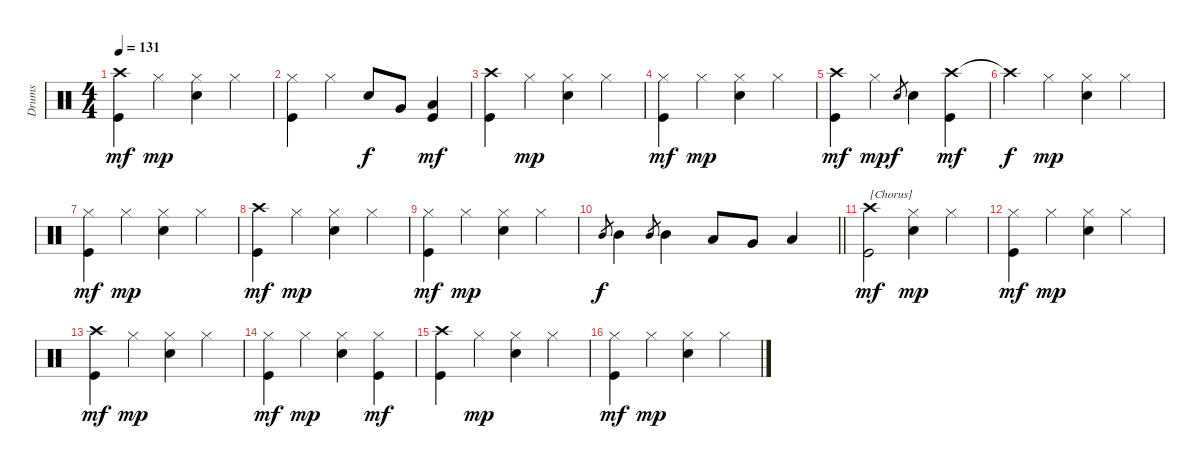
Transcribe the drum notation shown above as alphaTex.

\track ("Drums" "Drums") {instrument percussion}
\staff {score}
\articulation defaults
\ts (4 4)
\tempo 131
\clef neutral
\ks c
("Crash high (hit)" "Kick (hit)").4{dy mf} "Hi-Hat (closed)".4{dy mp} ("Hi-Hat (closed)" "Snare (hit) 2").4 "Hi-Hat (closed)".4 |
("Hi-Hat (closed)" "Kick (hit)").4 "Hi-Hat (closed)".4 "Snare (hit) 2".8{dy f} "Very Low Tom (hit)".8 ("Low Floor Tom (hit)" "Kick (hit)").4{dy mf} |
("Crash high (hit)" "Kick (hit)").4 "Hi-Hat (closed)".4{dy mp} ("Hi-Hat (closed)" "Snare (hit) 2").4 "Hi-Hat (closed)".4 |
("Hi-Hat (closed)" "Kick (hit)").4{dy mf} "Hi-Hat (closed)".4{dy mp} ("Hi-Hat (closed)" "Snare (hit) 2").4 "Hi-Hat (closed)".4 |
("Crash high (hit)" "Kick (hit)").4{dy mf} "Hi-Hat (closed)".4{dy mp} "Snare (hit) 2".8{gr dy f} "Snare (hit) 2".4 ("Crash high (hit)" "Kick (hit)").4{dy mf} |
"Crash high (hit)"{t}.4{dy f} "Hi-Hat (closed)".4{dy mp} ("Hi-Hat (closed)" "Snare (hit) 2").4 "Hi-Hat (closed)".4 |
("Hi-Hat (closed)" "Kick (hit)").4{dy mf} "Hi-Hat (closed)".4{dy mp} ("Hi-Hat (closed)" "Snare (hit) 2").4 "Hi-Hat (closed)".4 |
("Crash high (hit)" "Kick (hit)").4{dy mf} "Hi-Hat (closed)".4{dy mp} ("Hi-Hat (closed)" "Snare (hit) 2").4 "Hi-Hat (closed)".4 |
("Hi-Hat (closed)" "Kick (hit)").4{dy mf} "Hi-Hat (closed)".4{dy mp} ("Hi-Hat (closed)" "Snare (hit) 2").4 "Hi-Hat (closed)".4 |
\barLineRight lightlight "Mid Tom (hit)".8{gr dy f} "Mid Tom (hit)".4 "Mid Tom (hit)".8{gr} "Mid Tom (hit)".4 "Low Tom (hit)".8 "Very Low Tom (hit)".8 "Low Tom (hit)".4
|
("Crash high (hit)" "Kick (hit)").2{txt "[Chorus]" dy mf} ("Hi-Hat (closed)" "Snare (hit) 2").4{dy mp} "Hi-Hat (closed)".4 |
("Hi-Hat (closed)" "Kick (hit)").4{dy mf} "Hi-Hat (closed)".4{dy mp} ("Hi-Hat (closed)" "Snare (hit) 2").4 "Hi-Hat (closed)".4 |
("Crash high (hit)" "Kick (hit)").4{dy mf} "Hi-Hat (closed)".4{dy mp} ("Hi-Hat (closed)" "Snare (hit) 2").4 "Hi-Hat (closed)".4 |
("Hi-Hat (closed)" "Kick (hit)").4{dy mf} "Hi-Hat (closed)".4{dy mp} ("Hi-Hat (closed)" "Snare (hit) 2").4 ("Hi-Hat (closed)" "Kick (hit)").4{dy mf} |
("Crash high (hit)" "Kick (hit)").4 "Hi-Hat (closed)".4{dy mp} ("Hi-Hat (closed)" "Snare (hit) 2").4 "Hi-Hat (closed)".4 |
("Hi-Hat (closed)" "Kick (hit)").4{dy mf} "Hi-Hat (closed)".4{dy mp} ("Hi-Hat (closed)" "Snare (hit) 2").4 "Hi-Hat (closed)".4
